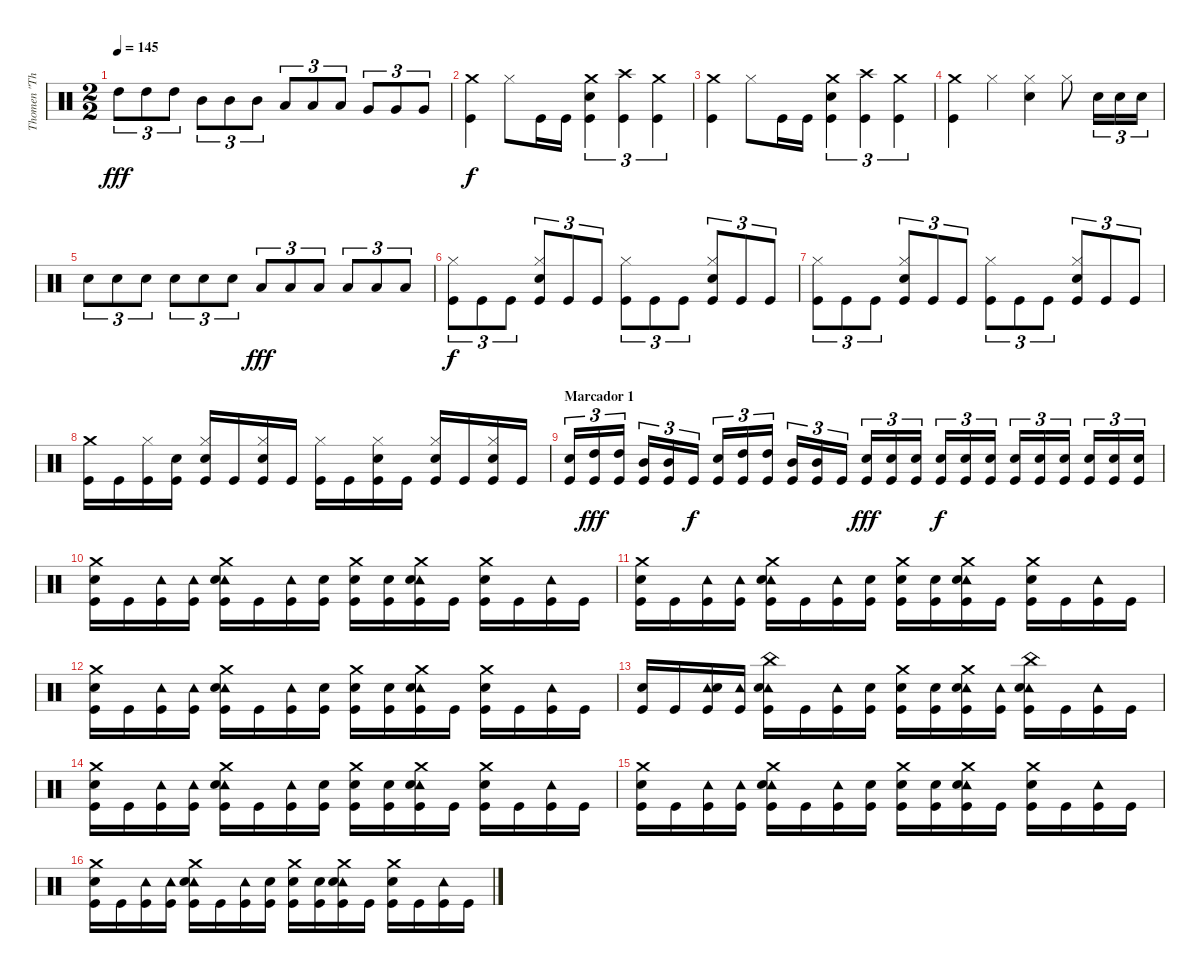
\track ("Thomen \"The Omen\" Stauch" "Thomen \"Th") {instrument percussion}
\staff {score}
\articulation defaults
\ts (2 2)
\tempo 145
\clef neutral
\ks c "High Tom (hit)".8{tu (3 2) dy fff} "High Tom (hit)".8{tu (3 2)} "High Tom (hit)".8{tu (3 2)} "Mid Tom (hit)".8{tu (3 2)} "Mid Tom (hit)".8{tu (3 2)} "Mid Tom (hit)".8{tu (3 2)} "Low Tom (hit)".8{tu (3 2)} "Low Tom (hit)".8{tu (3 2)} "Low Tom (hit)".8{tu (3 2)} "Very Low Tom (hit)".8{tu (3 2)} "Very Low Tom (hit)".8{tu (3 2)} "Very Low Tom (hit)".8{tu (3 2)}
|
("Crash medium (hit)" "Kick (hit)").4{dy f} "Hi-Hat (closed)".8 "Kick (hit)".16 "Kick (hit)".16 ("Crash medium (hit)" "Snare (hit) 2" "Kick (hit)").4{tu (3 2)} ("Crash high (hit)" "Kick (hit)").4{tu (3 2)} ("Crash medium (hit)" "Kick (hit)").4{tu (3 2)} |
("Crash medium (hit)" "Kick (hit)").4 "Hi-Hat (closed)".8 "Kick (hit)".16 "Kick (hit)".16 ("Crash medium (hit)" "Snare (hit) 2" "Kick (hit)").4{tu (3 2)} ("Crash high (hit)" "Kick (hit)").4{tu (3 2)} ("Crash medium (hit)" "Kick (hit)").4{tu (3 2)} |
("Crash medium (hit)" "Kick (hit)").4 "Hi-Hat (closed)".4 ("Hi-Hat (closed)" "Snare (hit) 2").4 "Hi-Hat (closed)".8 "Snare (hit) 2".16{tu (3 2)} "Snare (hit) 2".16{tu (3 2)} "Snare (hit) 2".16{tu (3 2)} |
"Snare (hit) 2".8{tu (3 2)} "Snare (hit) 2".8{tu (3 2)} "Snare (hit) 2".8{tu (3 2)} "Snare (hit) 2".8{tu (3 2)} "Snare (hit) 2".8{tu (3 2)} "Snare (hit) 2".8{tu (3 2)} "Low Tom (hit)".8{tu (3 2) dy fff} "Low Tom (hit)".8{tu (3 2)} "Low Tom (hit)".8{tu (3 2)} "Low Tom (hit)".8{tu (3 2)} "Low Tom (hit)".8{tu (3 2)} "Low Tom (hit)".8{tu (3 2)} |
("Hi-Hat (closed)" "Kick (hit)").8{tu (3 2) dy f} "Kick (hit)".8{tu (3 2)} "Kick (hit)".8{tu (3 2)} ("Hi-Hat (closed)" "Snare (hit) 2" "Kick (hit)").8{tu (3 2)} "Kick (hit)".8{tu (3 2)} "Kick (hit)".8{tu (3 2)} ("Hi-Hat (closed)" "Kick (hit)").8{tu (3 2)} "Kick (hit)".8{tu (3 2)} "Kick (hit)".8{tu (3 2)} ("Hi-Hat (closed)" "Snare (hit) 2" "Kick (hit)").8{tu (3 2)} "Kick (hit)".8{tu (3 2)} "Kick (hit)".8{tu (3 2)} |
("Hi-Hat (closed)" "Kick (hit)").8{tu (3 2)} "Kick (hit)".8{tu (3 2)} "Kick (hit)".8{tu (3 2)} ("Hi-Hat (closed)" "Snare (hit) 2" "Kick (hit)").8{tu (3 2)} "Kick (hit)".8{tu (3 2)} "Kick (hit)".8{tu (3 2)} ("Hi-Hat (closed)" "Kick (hit)").8{tu (3 2)} "Kick (hit)".8{tu (3 2)} "Kick (hit)".8{tu (3 2)} ("Hi-Hat (closed)" "Snare (hit) 2" "Kick (hit)").8{tu (3 2)} "Kick (hit)".8{tu (3 2)} "Kick (hit)".8{tu (3 2)} |
("Crash medium (hit)" "Kick (hit)").16 "Kick (hit)".16 ("Hi-Hat (closed)" "Kick (hit)").16 ("Snare (hit) 2" "Kick (hit)").16 ("Hi-Hat (closed)" "Snare (hit) 2" "Kick (hit)").16 "Kick (hit)".16 ("Hi-Hat (closed)" "Snare (hit) 2" "Kick (hit)").16 "Kick (hit)".16 ("Hi-Hat (closed)" "Kick (hit)").16 "Kick (hit)".16 ("Hi-Hat (closed)" "Snare (hit) 2" "Kick (hit)").16 "Kick (hit)".16 ("Hi-Hat (closed)" "Snare (hit) 2" "Kick (hit)").16 "Kick (hit)".16 ("Hi-Hat (closed)" "Snare (hit) 2" "Kick (hit)").16 "Kick (hit)".16 |
\section ("" "Marcador 1")
("Snare (hit) 2" "Kick (hit)").16{tu (3 2)} ("High Tom (hit)" "Kick (hit)").16{tu (3 2) dy fff} ("High Tom (hit)" "Kick (hit)").16{tu (3 2)} ("Mid Tom (hit)" "Kick (hit)").16{tu (3 2)} ("Mid Tom (hit)" "Kick (hit)").16{tu (3 2)} "Kick (hit)".16{tu (3 2) dy f} ("Snare (hit) 2" "Kick (hit)").16{tu (3 2)} ("High Tom (hit)" "Kick (hit)").16{tu (3 2)} ("High Tom (hit)" "Kick (hit)").16{tu (3 2)} ("Mid Tom (hit)" "Kick (hit)").16{tu (3 2)} ("Mid Tom (hit)" "Kick (hit)").16{tu (3 2)} "Kick (hit)".16{tu (3 2)} ("Snare (hit) 2" "Kick (hit)").16{tu (3 2) dy fff} ("Snare (hit) 2" "Kick (hit)").16{tu (3 2)} ("Snare (hit) 2" "Kick (hit)").16{tu (3 2)} ("Snare (hit) 2" "Kick (hit)").16{tu (3 2) dy f} ("Snare (hit) 2" "Kick (hit)").16{tu (3 2)} ("Snare (hit) 2" "Kick (hit)").16{tu (3 2)} ("Snare (hit) 2" "Kick (hit)").16{tu (3 2)} ("Snare (hit) 2" "Kick (hit)").16{tu (3 2)} ("Snare (hit) 2" "Kick (hit)").16{tu (3 2)} ("Snare (hit) 2" "Kick (hit)").16{tu (3 2)} ("Snare (hit) 2" "Kick (hit)").16{tu (3 2)} ("Snare (hit) 2" "Kick (hit)").16{tu (3 2)} |
("Crash medium (hit)" "Snare (hit) 2" "Kick (hit)").16 "Kick (hit)".16 ("Tambourine (hit)" "Kick (hit)").16 ("Tambourine (hit)" "Kick (hit)").16 ("Crash medium (hit)" "Tambourine (hit)" "Snare (hit) 2" "Kick (hit)").16 "Kick (hit)".16 ("Tambourine (hit)" "Kick (hit)").16 ("Snare (hit) 2" "Kick (hit)").16 ("Crash medium (hit)" "Snare (hit) 2" "Kick (hit)").16 ("Snare (hit) 2" "Kick (hit)").16 ("Crash medium (hit)" "Tambourine (hit)" "Snare (hit) 2" "Kick (hit)").16 "Kick (hit)".16 ("Crash medium (hit)" "Snare (hit) 2" "Kick (hit)").16 "Kick (hit)".16 ("Tambourine (hit)" "Kick (hit)").16 "Kick (hit)".16 |
("Crash medium (hit)" "Snare (hit) 2" "Kick (hit)").16 "Kick (hit)".16 ("Tambourine (hit)" "Kick (hit)").16 ("Tambourine (hit)" "Kick (hit)").16 ("Crash medium (hit)" "Tambourine (hit)" "Snare (hit) 2" "Kick (hit)").16 "Kick (hit)".16 ("Tambourine (hit)" "Kick (hit)").16 ("Snare (hit) 2" "Kick (hit)").16 ("Crash medium (hit)" "Snare (hit) 2" "Kick (hit)").16 ("Snare (hit) 2" "Kick (hit)").16 ("Crash medium (hit)" "Tambourine (hit)" "Snare (hit) 2" "Kick (hit)").16 "Kick (hit)".16 ("Crash medium (hit)" "Snare (hit) 2" "Kick (hit)").16 "Kick (hit)".16 ("Tambourine (hit)" "Kick (hit)").16 "Kick (hit)".16 |
("Crash medium (hit)" "Snare (hit) 2" "Kick (hit)").16 "Kick (hit)".16 ("Tambourine (hit)" "Kick (hit)").16 ("Tambourine (hit)" "Kick (hit)").16 ("Crash medium (hit)" "Tambourine (hit)" "Snare (hit) 2" "Kick (hit)").16 "Kick (hit)".16 ("Tambourine (hit)" "Kick (hit)").16 ("Snare (hit) 2" "Kick (hit)").16 ("Crash medium (hit)" "Snare (hit) 2" "Kick (hit)").16 ("Snare (hit) 2" "Kick (hit)").16 ("Crash medium (hit)" "Tambourine (hit)" "Snare (hit) 2" "Kick (hit)").16 "Kick (hit)".16 ("Crash medium (hit)" "Snare (hit) 2" "Kick (hit)").16 "Kick (hit)".16 ("Tambourine (hit)" "Kick (hit)").16 "Kick (hit)".16 |
("Snare (hit) 2" "Kick (hit)").16 "Kick (hit)".16 ("Tambourine (hit)" "Snare (hit) 2" "Kick (hit)").16 ("Tambourine (hit)" "Kick (hit)").16 ("China (hit)" "Tambourine (hit)" "Snare (hit) 2" "Kick (hit)").16 "Kick (hit)".16 ("Tambourine (hit)" "Kick (hit)").16 ("Snare (hit) 2" "Kick (hit)").16 ("Crash medium (hit)" "Snare (hit) 2" "Kick (hit)").16 ("Snare (hit) 2" "Kick (hit)").16 ("Crash medium (hit)" "Tambourine (hit)" "Snare (hit) 2" "Kick (hit)").16 ("Tambourine (hit)" "Kick (hit)").16 ("China (hit)" "Tambourine (hit)" "Snare (hit) 2" "Kick (hit)").16 "Kick (hit)".16 ("Tambourine (hit)" "Kick (hit)").16 "Kick (hit)".16 |
("Crash medium (hit)" "Snare (hit) 2" "Kick (hit)").16 "Kick (hit)".16 ("Tambourine (hit)" "Kick (hit)").16 ("Tambourine (hit)" "Kick (hit)").16 ("Crash medium (hit)" "Tambourine (hit)" "Snare (hit) 2" "Kick (hit)").16 "Kick (hit)".16 ("Tambourine (hit)" "Kick (hit)").16 ("Snare (hit) 2" "Kick (hit)").16 ("Crash medium (hit)" "Snare (hit) 2" "Kick (hit)").16 ("Snare (hit) 2" "Kick (hit)").16 ("Crash medium (hit)" "Tambourine (hit)" "Snare (hit) 2" "Kick (hit)").16 "Kick (hit)".16 ("Crash medium (hit)" "Snare (hit) 2" "Kick (hit)").16 "Kick (hit)".16 ("Tambourine (hit)" "Kick (hit)").16 "Kick (hit)".16 |
("Crash medium (hit)" "Snare (hit) 2" "Kick (hit)").16 "Kick (hit)".16 ("Tambourine (hit)" "Kick (hit)").16 ("Tambourine (hit)" "Kick (hit)").16 ("Crash medium (hit)" "Tambourine (hit)" "Snare (hit) 2" "Kick (hit)").16 "Kick (hit)".16 ("Tambourine (hit)" "Kick (hit)").16 ("Snare (hit) 2" "Kick (hit)").16 ("Crash medium (hit)" "Snare (hit) 2" "Kick (hit)").16 ("Snare (hit) 2" "Kick (hit)").16 ("Crash medium (hit)" "Tambourine (hit)" "Snare (hit) 2" "Kick (hit)").16 "Kick (hit)".16 ("Crash medium (hit)" "Snare (hit) 2" "Kick (hit)").16 "Kick (hit)".16 ("Tambourine (hit)" "Kick (hit)").16 "Kick (hit)".16 |
("Crash medium (hit)" "Snare (hit) 2" "Kick (hit)").16 "Kick (hit)".16 ("Tambourine (hit)" "Kick (hit)").16 ("Tambourine (hit)" "Kick (hit)").16 ("Crash medium (hit)" "Tambourine (hit)" "Snare (hit) 2" "Kick (hit)").16 "Kick (hit)".16 ("Tambourine (hit)" "Kick (hit)").16 ("Snare (hit) 2" "Kick (hit)").16 ("Crash medium (hit)" "Snare (hit) 2" "Kick (hit)").16 ("Snare (hit) 2" "Kick (hit)").16 ("Crash medium (hit)" "Tambourine (hit)" "Snare (hit) 2" "Kick (hit)").16 "Kick (hit)".16 ("Crash medium (hit)" "Snare (hit) 2" "Kick (hit)").16 "Kick (hit)".16 ("Tambourine (hit)" "Kick (hit)").16 "Kick (hit)".16
